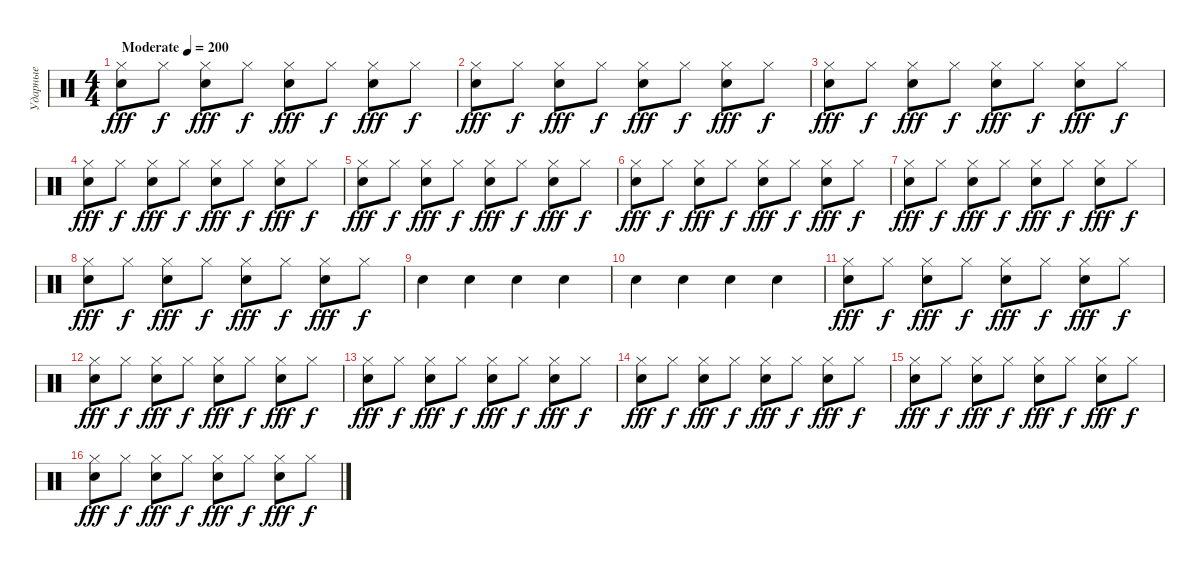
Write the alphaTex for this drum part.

\track ("Ударные" "Ударные") {instrument percussion}
\staff {score}
\articulation defaults
\ts (4 4)
\tempo (200 "Moderate")
\clef neutral
\ks c
("Hi-Hat (closed)" "Hand Clap (hit)").8{dy fff} "Hi-Hat (closed)".8{dy f} ("Hi-Hat (closed)" "Hand Clap (hit)").8{dy fff} "Hi-Hat (closed)".8{dy f} ("Hi-Hat (closed)" "Hand Clap (hit)").8{dy fff} "Hi-Hat (closed)".8{dy f} ("Hi-Hat (closed)" "Hand Clap (hit)").8{dy fff} "Hi-Hat (closed)".8{dy f} |
("Hi-Hat (closed)" "Hand Clap (hit)").8{dy fff} "Hi-Hat (closed)".8{dy f} ("Hi-Hat (closed)" "Hand Clap (hit)").8{dy fff} "Hi-Hat (closed)".8{dy f} ("Hi-Hat (closed)" "Hand Clap (hit)").8{dy fff} "Hi-Hat (closed)".8{dy f} ("Hi-Hat (closed)" "Hand Clap (hit)").8{dy fff} "Hi-Hat (closed)".8{dy f} |
("Hi-Hat (closed)" "Hand Clap (hit)").8{dy fff} "Hi-Hat (closed)".8{dy f} ("Hi-Hat (closed)" "Hand Clap (hit)").8{dy fff} "Hi-Hat (closed)".8{dy f} ("Hi-Hat (closed)" "Hand Clap (hit)").8{dy fff} "Hi-Hat (closed)".8{dy f} ("Hi-Hat (closed)" "Hand Clap (hit)").8{dy fff} "Hi-Hat (closed)".8{dy f} |
("Hi-Hat (closed)" "Hand Clap (hit)").8{dy fff} "Hi-Hat (closed)".8{dy f} ("Hi-Hat (closed)" "Hand Clap (hit)").8{dy fff} "Hi-Hat (closed)".8{dy f} ("Hi-Hat (closed)" "Hand Clap (hit)").8{dy fff} "Hi-Hat (closed)".8{dy f} ("Hi-Hat (closed)" "Hand Clap (hit)").8{dy fff} "Hi-Hat (closed)".8{dy f} |
("Hi-Hat (closed)" "Hand Clap (hit)").8{dy fff} "Hi-Hat (closed)".8{dy f} ("Hi-Hat (closed)" "Hand Clap (hit)").8{dy fff} "Hi-Hat (closed)".8{dy f} ("Hi-Hat (closed)" "Hand Clap (hit)").8{dy fff} "Hi-Hat (closed)".8{dy f} ("Hi-Hat (closed)" "Hand Clap (hit)").8{dy fff} "Hi-Hat (closed)".8{dy f} |
("Hi-Hat (closed)" "Hand Clap (hit)").8{dy fff} "Hi-Hat (closed)".8{dy f} ("Hi-Hat (closed)" "Hand Clap (hit)").8{dy fff} "Hi-Hat (closed)".8{dy f} ("Hi-Hat (closed)" "Hand Clap (hit)").8{dy fff} "Hi-Hat (closed)".8{dy f} ("Hi-Hat (closed)" "Hand Clap (hit)").8{dy fff} "Hi-Hat (closed)".8{dy f} |
("Hi-Hat (closed)" "Hand Clap (hit)").8{dy fff} "Hi-Hat (closed)".8{dy f} ("Hi-Hat (closed)" "Hand Clap (hit)").8{dy fff} "Hi-Hat (closed)".8{dy f} ("Hi-Hat (closed)" "Hand Clap (hit)").8{dy fff} "Hi-Hat (closed)".8{dy f} ("Hi-Hat (closed)" "Hand Clap (hit)").8{dy fff} "Hi-Hat (closed)".8{dy f} |
("Hi-Hat (closed)" "Hand Clap (hit)").8{dy fff} "Hi-Hat (closed)".8{dy f} ("Hi-Hat (closed)" "Hand Clap (hit)").8{dy fff} "Hi-Hat (closed)".8{dy f} ("Hi-Hat (closed)" "Hand Clap (hit)").8{dy fff} "Hi-Hat (closed)".8{dy f} ("Hi-Hat (closed)" "Hand Clap (hit)").8{dy fff} "Hi-Hat (closed)".8{dy f} |
"Hand Clap (hit)".4 "Hand Clap (hit)".4 "Hand Clap (hit)".4 "Hand Clap (hit)".4 |
"Hand Clap (hit)".4 "Hand Clap (hit)".4 "Hand Clap (hit)".4 "Hand Clap (hit)".4 |
("Hi-Hat (closed)" "Hand Clap (hit)").8{dy fff} "Hi-Hat (closed)".8{dy f} ("Hi-Hat (closed)" "Hand Clap (hit)").8{dy fff} "Hi-Hat (closed)".8{dy f} ("Hi-Hat (closed)" "Hand Clap (hit)").8{dy fff} "Hi-Hat (closed)".8{dy f} ("Hi-Hat (closed)" "Hand Clap (hit)").8{dy fff} "Hi-Hat (closed)".8{dy f} |
("Hi-Hat (closed)" "Hand Clap (hit)").8{dy fff} "Hi-Hat (closed)".8{dy f} ("Hi-Hat (closed)" "Hand Clap (hit)").8{dy fff} "Hi-Hat (closed)".8{dy f} ("Hi-Hat (closed)" "Hand Clap (hit)").8{dy fff} "Hi-Hat (closed)".8{dy f} ("Hi-Hat (closed)" "Hand Clap (hit)").8{dy fff} "Hi-Hat (closed)".8{dy f} |
("Hi-Hat (closed)" "Hand Clap (hit)").8{dy fff} "Hi-Hat (closed)".8{dy f} ("Hi-Hat (closed)" "Hand Clap (hit)").8{dy fff} "Hi-Hat (closed)".8{dy f} ("Hi-Hat (closed)" "Hand Clap (hit)").8{dy fff} "Hi-Hat (closed)".8{dy f} ("Hi-Hat (closed)" "Hand Clap (hit)").8{dy fff} "Hi-Hat (closed)".8{dy f} |
("Hi-Hat (closed)" "Hand Clap (hit)").8{dy fff} "Hi-Hat (closed)".8{dy f} ("Hi-Hat (closed)" "Hand Clap (hit)").8{dy fff} "Hi-Hat (closed)".8{dy f} ("Hi-Hat (closed)" "Hand Clap (hit)").8{dy fff} "Hi-Hat (closed)".8{dy f} ("Hi-Hat (closed)" "Hand Clap (hit)").8{dy fff} "Hi-Hat (closed)".8{dy f} |
("Hi-Hat (closed)" "Hand Clap (hit)").8{dy fff} "Hi-Hat (closed)".8{dy f} ("Hi-Hat (closed)" "Hand Clap (hit)").8{dy fff} "Hi-Hat (closed)".8{dy f} ("Hi-Hat (closed)" "Hand Clap (hit)").8{dy fff} "Hi-Hat (closed)".8{dy f} ("Hi-Hat (closed)" "Hand Clap (hit)").8{dy fff} "Hi-Hat (closed)".8{dy f} |
("Hi-Hat (closed)" "Hand Clap (hit)").8{dy fff} "Hi-Hat (closed)".8{dy f} ("Hi-Hat (closed)" "Hand Clap (hit)").8{dy fff} "Hi-Hat (closed)".8{dy f} ("Hi-Hat (closed)" "Hand Clap (hit)").8{dy fff} "Hi-Hat (closed)".8{dy f} ("Hi-Hat (closed)" "Hand Clap (hit)").8{dy fff} "Hi-Hat (closed)".8{dy f}
